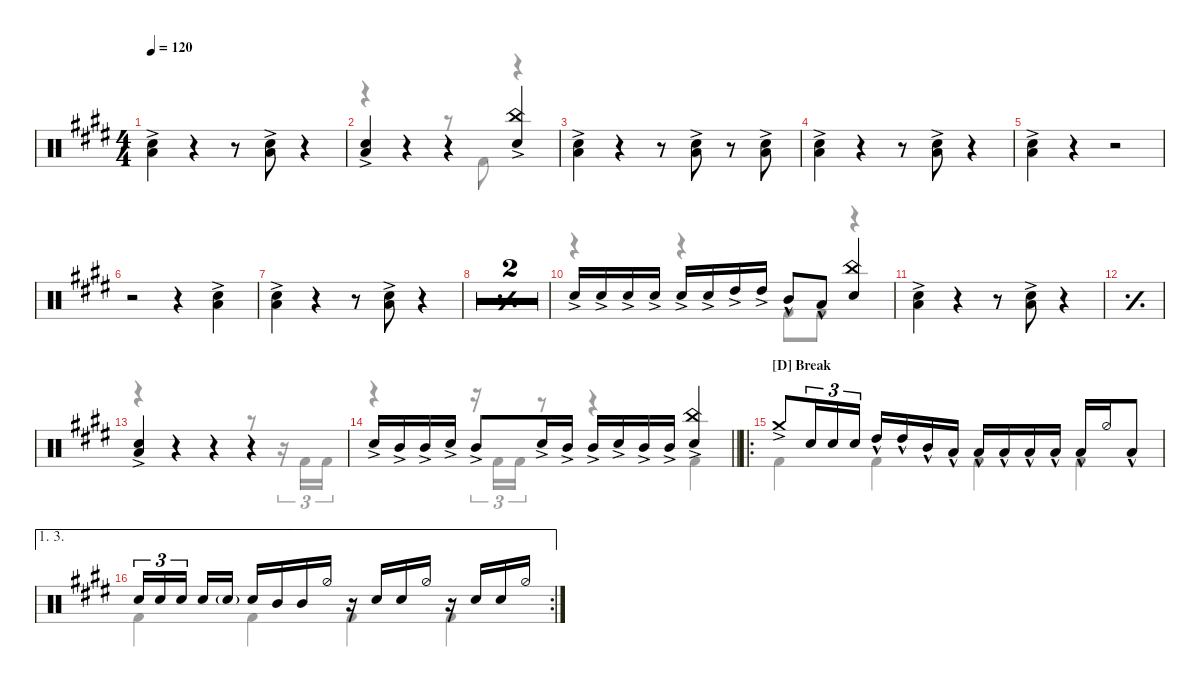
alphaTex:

\defaultSystemsLayout 4
\hideDynamics
\bracketExtendMode nobrackets
\singleTrackTrackNamePolicy hidden
\multiTrackTrackNamePolicy hidden
\firstSystemTrackNameMode fullname
\firstSystemTrackNameOrientation horizontal
\otherSystemsTrackNameOrientation horizontal
\track ("Drums" "Drums") {multiBarRest instrument percussion}
\staff {score}
\articulation defaults
\voice
\ts (4 4)
\tempo 120
\clef neutral
\ks e
("Snare (hit) 2"{ac acc forcenatural} "Low Tom (hit)"{ac acc forcenatural}).4{dy mf} r.4 r.8 ("Low Tom (hit)"{ac acc forcenatural} "Snare (hit) 2"{ac acc forcenatural}).8 r.4 |
("Snare (hit) 2"{ac acc forcenatural} "Low Tom (hit)"{ac acc forcenatural}).4 r.4 r.4 ("Snare (hit) 2"{ac acc forcenatural} "China (hit)"{ac acc forcenatural}).4 |
("Snare (hit) 2"{ac acc forcenatural} "Low Tom (hit)"{ac acc forcenatural}).4 r.4 r.8 ("Low Tom (hit)"{ac acc forcenatural} "Snare (hit) 2"{ac acc forcenatural}).8 r.8 ("Low Tom (hit)"{ac acc forcenatural} "Snare (hit) 2"{ac acc forcenatural}).8 |
("Snare (hit) 2"{ac acc forcenatural} "Low Tom (hit)"{ac acc forcenatural}).4 r.4 r.8 ("Low Tom (hit)"{ac acc forcenatural} "Snare (hit) 2"{ac acc forcenatural}).8 r.4 |
("Snare (hit) 2"{ac acc forcenatural} "Low Tom (hit)"{ac acc forcenatural}).4 r.4 r.2 |
r.2 r.4 ("Snare (hit) 2"{ac acc forcenatural} "Low Tom (hit)"{ac acc forcenatural}).4 |
("Snare (hit) 2"{ac acc forcenatural} "Low Tom (hit)"{ac acc forcenatural}).4 r.4 r.8 ("Low Tom (hit)"{ac acc forcenatural} "Snare (hit) 2"{ac acc forcenatural}).8 r.4 |
\simile simple
|
|
\simile none "Snare (hit) 2"{ac acc forcenatural}.16 "Snare (hit) 2"{ac acc forcenatural}.16 "Snare (hit) 2"{ac acc forcenatural}.16 "Snare (hit) 2"{ac acc forcenatural}.16 "Snare (hit) 2"{ac acc forcenatural}.16 "Snare (hit) 2"{ac acc forcenatural}.16 "High Tom (hit)"{ac acc forcenatural}.16 "High Tom (hit)"{ac acc forcenatural}.16 "Mid Tom (hit)"{hac acc forcenatural}.8 "Low Tom (hit)"{hac acc forcenatural}.8
("Snare (hit) 2"{acc forcenatural} "China (hit)"{acc forcenatural}).4 |
\scale
0.220898 ("Snare (hit) 2"{ac acc forcenatural} "Low Tom (hit)"{ac acc forcenatural}).4 r.4 r.8 ("Low Tom (hit)"{ac acc forcenatural} "Snare (hit) 2"{ac acc forcenatural}).8 r.4 |
\simile simple
\scale
0.104269 |
\simile none
\scale
0.29421 ("Snare (hit) 2"{ac acc forcenatural} "Low Tom (hit)"{ac acc forcenatural}).4 r.4 r.4 r.4 |
\scale
0.381331
\barLineRight lightlight "Snare (hit) 2"{ac acc forcenatural}.16 "Mid Tom (hit)"{ac acc forcenatural}.16 "Mid Tom (hit)"{ac acc forcenatural}.16 "Snare (hit) 2"{ac acc forcenatural}.16 "Mid Tom (hit)"{ac acc forcenatural}.8 "Snare (hit) 2"{ac acc forcenatural}.16 "Mid Tom (hit)"{ac acc forcenatural}.16 "Mid Tom (hit)"{ac acc forcenatural}.16 "Snare (hit) 2"{ac acc forcenatural}.16 "Mid Tom (hit)"{ac acc forcenatural}.16 "Mid Tom (hit)"{ac acc forcenatural}.16
("Snare (hit) 2"{ac acc forcenatural} "China (hit)"{acc forcenatural}).4 |
\ro
\section ("D" "Break")
"Crash medium (hit)"{ac acc forcenatural}.8{beam merge} "Snare (hit) 2"{acc forcenatural}.16{tu (3 2)} "Snare (hit) 2"{acc forcenatural}.16{tu (3 2)} "Snare (hit) 2"{acc forcenatural}.16{tu (3 2)} "High Tom (hit)"{hac acc forcenatural}.16 "High Tom (hit)"{hac acc forcenatural}.16 "Mid Tom (hit)"{hac acc forcenatural}.16 "Low Tom (hit)"{hac acc forcenatural}.16 "Low Tom (hit)"{hac acc forcenatural}.16 "Low Tom (hit)"{hac acc forcenatural}.16 "Low Tom (hit)"{hac acc forcenatural}.16 "Low Tom (hit)"{hac acc forcenatural}.16 "Low Tom (hit)"{hac acc forcenatural}.16 "Hi-Hat (half)"{acc forcenatural}.16 "Low Tom (hit)"{hac acc forcenatural}.8 |
\ae (1 3)
\rc 2 "Snare (hit) 2"{acc forcenatural}.16{tu (3 2)} "Snare (hit) 2"{acc forcenatural}.16{tu (3 2)} "Snare (hit) 2"{acc forcenatural}.16{tu (3 2) beam splitsecondary} "Snare (hit) 2"{acc forcenatural}.16 "Snare (hit) 2"{g acc forcenatural}.16 "Snare (hit) 2"{acc forcenatural}.16 "Mid Tom (hit)"{acc forcenatural}.16 "Mid Tom (hit)"{acc forcenatural}.16 "Hi-Hat (half)"{acc forcenatural}.16
r.16 "Snare (hit) 2"{acc forcenatural}.16 "Snare (hit) 2"{acc forcenatural}.16 "Hi-Hat (half)"{acc forcenatural}.16 r.16 "Snare (hit) 2"{acc forcenatural}.16 "Snare (hit) 2"{acc forcenatural}.16 "Hi-Hat (half)"{acc forcenatural}.16
\voice
\clef neutral
\ottava regular
\simile none
\ks e
|
r.4 r.4 r.8 "Kick (hit) 2"{acc forcenatural}.8 r.4 |
|
|
|
|
|
\simile simple
|
|
\simile none
r.4 r.4 "Kick (hit) 2"{acc forcenatural}.8 "Kick (hit) 2"{acc forcenatural}.8 r.4 |
\scale
0.220898 |
\simile simple
\scale
0.104269 |
\simile none
\scale
0.29421 r.4 r.4 r.4 r.8 r.16{tu (3 2)} "Kick (hit) 2"{acc forcenatural}.16{tu (3 2)} "Kick (hit) 2"{acc forcenatural}.16{tu (3 2)} |
\scale
0.381331
\barLineRight lightlight
r.4 r.16{tu (3 2)} "Kick (hit) 2"{acc forcenatural}.16{tu (3 2)} "Kick (hit) 2"{acc forcenatural}.16{tu (3 2)} r.8 r.4 "Kick (hit) 2"{acc forcenatural}.4 |
"Kick (hit) 2"{acc forcenatural}.4 "Kick (hit) 2"{acc forcenatural}.4 "Kick (hit) 2"{acc forcenatural}.4 "Kick (hit) 2"{acc forcenatural}.4 |
"Kick (hit) 2"{acc forcenatural}.4 "Kick (hit) 2"{acc forcenatural}.4 "Kick (hit) 2"{acc forcenatural}.4 "Kick (hit) 2"{acc forcenatural}.4
